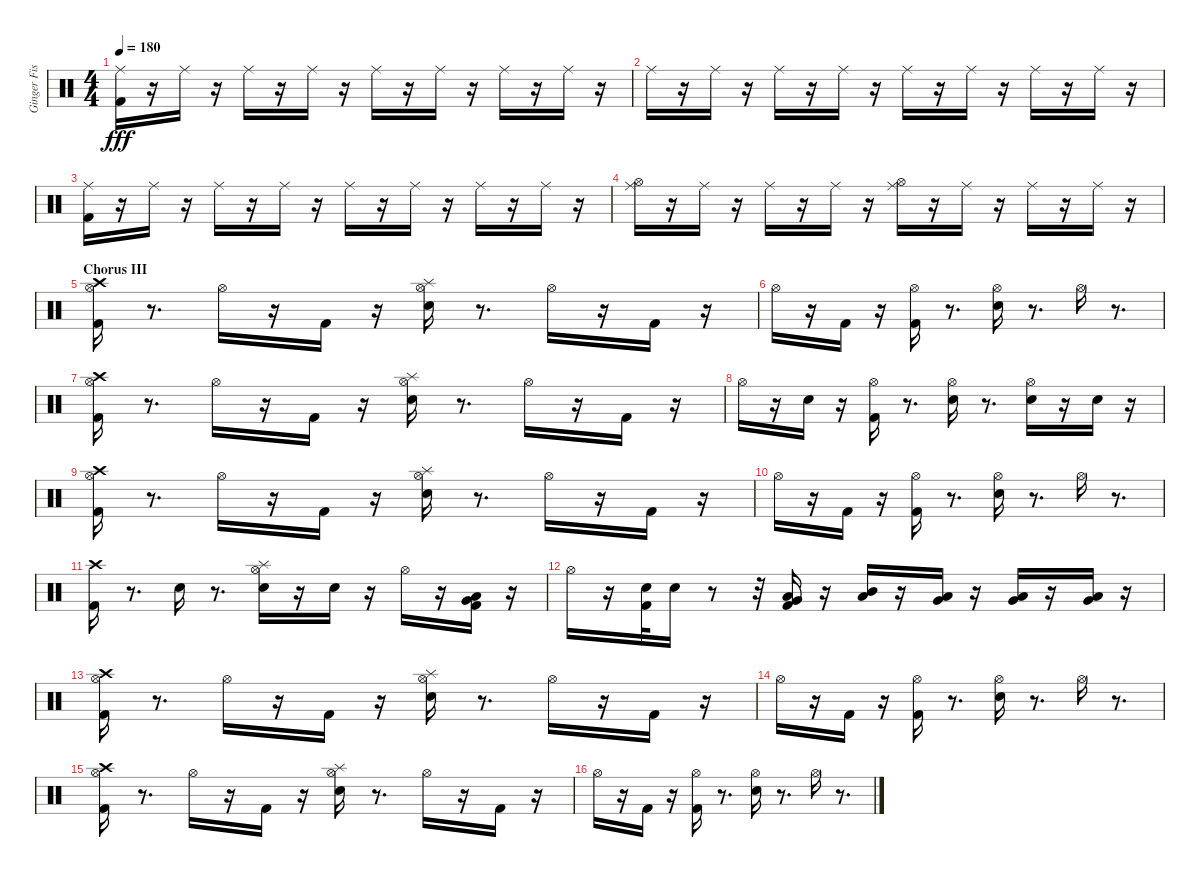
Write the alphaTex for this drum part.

\track ("Ginger Fish" "Ginger Fis") {instrument percussion}
\staff {score}
\articulation defaults
\ts (4 4)
\tempo 180
\clef neutral
\ks c
("Kick (hit) 2" "Ride (middle)").16{dy fff} r.16 "Ride (middle)".16 r.16 "Ride (middle)".16 r.16 "Ride (middle)".16 r.16 "Ride (middle)".16 r.16 "Ride (middle)".16 r.16 "Ride (middle)".16 r.16 "Ride (middle)".16 r.16 |
"Ride (middle)".16 r.16 "Ride (middle)".16 r.16 "Ride (middle)".16 r.16 "Ride (middle)".16 r.16 "Ride (middle)".16 r.16 "Ride (middle)".16 r.16 "Ride (middle)".16 r.16 "Ride (middle)".16 r.16 |
("Kick (hit) 2" "Ride (middle)").16 r.16 "Ride (middle)".16 r.16 "Ride (middle)".16 r.16 "Ride (middle)".16 r.16 "Ride (middle)".16 r.16 "Ride (middle)".16 r.16 "Ride (middle)".16 r.16 "Ride (middle)".16 r.16 |
("Hi-Hat (open)" "Ride (middle)").16 r.16 "Ride (middle)".16 r.16 "Ride (middle)".16 r.16 "Ride (middle)".16 r.16 ("Hi-Hat (open)" "Ride (middle)").16 r.16 "Ride (middle)".16 r.16 "Ride (middle)".16 r.16 "Ride (middle)".16 r.16 |
\section ("" "Chorus III")
("Crash high (hit)" "Kick (hit) 2" "Hi-Hat (open)").16 r.8{d} "Hi-Hat (open)".16 r.16 "Kick (hit) 2".16 r.16 ("Electric Snare (hit)" "Hi-Hat (open)" "Splash (hit)").16 r.8{d} "Hi-Hat (open)".16 r.16 "Kick (hit) 2".16 r.16 |
"Hi-Hat (open)".16 r.16 "Kick (hit) 2".16 r.16 ("Hi-Hat (open)" "Kick (hit) 2").16 r.8{d} ("Hi-Hat (open)" "Electric Snare (hit)").16 r.8{d} "Hi-Hat (open)".16 r.8{d} |
("Crash high (hit)" "Kick (hit) 2" "Hi-Hat (open)").16 r.8{d} "Hi-Hat (open)".16 r.16 "Kick (hit) 2".16 r.16 ("Splash (hit)" "Electric Snare (hit)" "Hi-Hat (open)").16 r.8{d} "Hi-Hat (open)".16 r.16 "Kick (hit) 2".16 r.16 |
"Hi-Hat (open)".16 r.16 "Electric Snare (hit)".16 r.16 ("Hi-Hat (open)" "Kick (hit) 2").16 r.8{d} ("Hi-Hat (open)" "Electric Snare (hit)").16 r.8{d} ("Hi-Hat (open)" "Electric Snare (hit)").16 r.16 "Electric Snare (hit)".16 r.16 |
("Crash high (hit)" "Kick (hit) 2" "Hi-Hat (open)").16 r.8{d} "Hi-Hat (open)".16 r.16 "Kick (hit) 2".16 r.16 ("Splash (hit)" "Electric Snare (hit)" "Hi-Hat (open)").16 r.8{d} "Hi-Hat (open)".16 r.16 "Kick (hit) 2".16 r.16 |
"Hi-Hat (open)".16 r.16 "Kick (hit) 2".16 r.16 ("Hi-Hat (open)" "Kick (hit) 2").16 r.8{d} ("Hi-Hat (open)" "Electric Snare (hit)").16 r.8{d} "Hi-Hat (open)".16 r.8{d} |
("Crash high (hit)" "Kick (hit) 2").16 r.8{d} "Electric Snare (hit)".16 r.8{d} ("Splash (hit)" "Hi-Hat (open)" "Electric Snare (hit)").16 r.16 "Electric Snare (hit)".16 r.16 "Hi-Hat (open)".16 r.16 ("Very Low Tom (hit)" "Low Floor Tom (hit)" "Kick (hit) 2").16 r.16 |
"Hi-Hat (open)".16 r.16 ("Electric Snare (hit)" "Kick (hit) 2").32 "Electric Snare (hit)".16 r.8 r.32 ("Low Tom (hit)" "Very Low Tom (hit)" "Kick (hit) 2").16 r.16 ("Low Tom (hit)" "Mid Tom (hit)").16 r.16 ("Very Low Tom (hit)" "Low Tom (hit)").16 r.16 ("Low Tom (hit)" "Very Low Tom (hit)").16 r.16 ("Very Low Tom (hit)" "Low Floor Tom (hit)").16 r.16 |
("Crash high (hit)" "Kick (hit) 2" "Hi-Hat (open)").16 r.8{d} "Hi-Hat (open)".16 r.16 "Kick (hit) 2".16 r.16 ("Splash (hit)" "Electric Snare (hit)" "Hi-Hat (open)").16 r.8{d} "Hi-Hat (open)".16 r.16 "Kick (hit) 2".16 r.16 |
"Hi-Hat (open)".16 r.16 "Kick (hit) 2".16 r.16 ("Hi-Hat (open)" "Kick (hit) 2").16 r.8{d} ("Hi-Hat (open)" "Electric Snare (hit)").16 r.8{d} "Hi-Hat (open)".16 r.8{d} |
("Crash high (hit)" "Kick (hit) 2" "Hi-Hat (open)").16 r.8{d} "Hi-Hat (open)".16 r.16 "Kick (hit) 2".16 r.16 ("Splash (hit)" "Electric Snare (hit)" "Hi-Hat (open)").16 r.8{d} "Hi-Hat (open)".16 r.16 "Kick (hit) 2".16 r.16 |
"Hi-Hat (open)".16 r.16 "Kick (hit) 2".16 r.16 ("Hi-Hat (open)" "Kick (hit) 2").16 r.8{d} ("Hi-Hat (open)" "Electric Snare (hit)").16 r.8{d} "Hi-Hat (open)".16 r.8{d}
